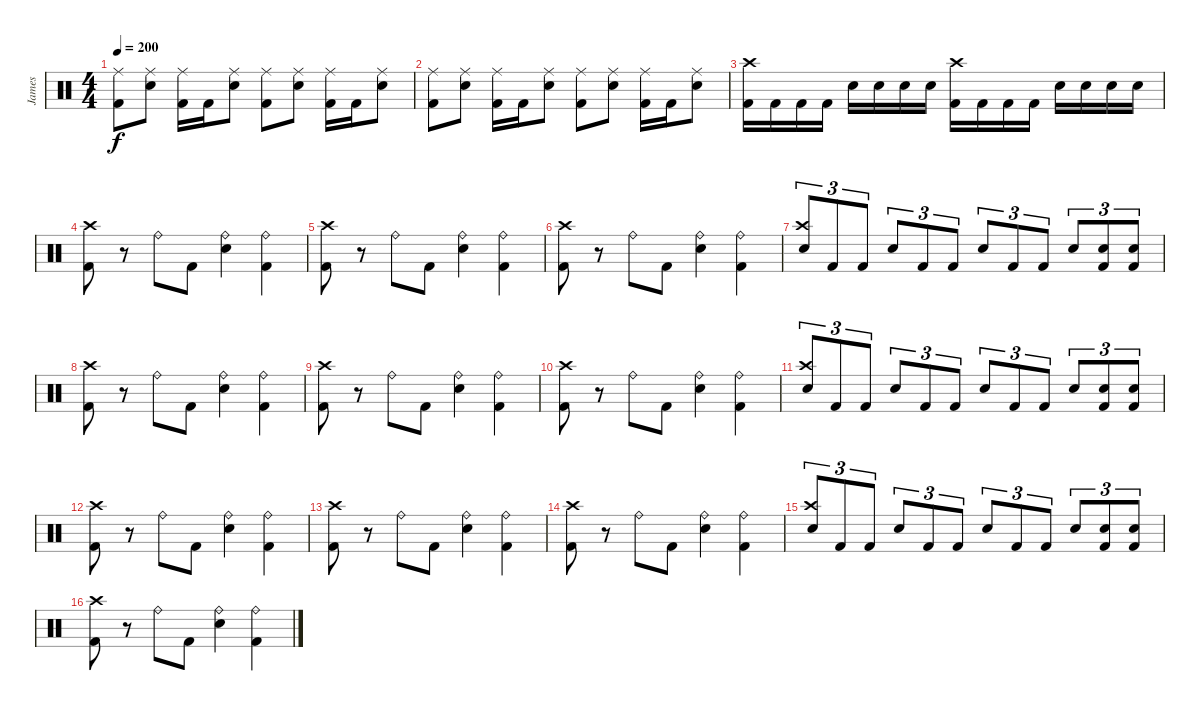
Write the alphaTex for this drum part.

\track ("James" "James") {instrument percussion}
\staff {score}
\articulation defaults
\ts (4 4)
\tempo 200
\clef neutral
\ks c
("Kick (hit) 2" "Ride (middle)").8{dy f} ("Electric Snare (hit)" "Ride (middle)").8 ("Kick (hit) 2" "Ride (middle)").16 "Kick (hit) 2".16 ("Electric Snare (hit)" "Ride (middle)").8 ("Kick (hit) 2" "Ride (middle)").8 ("Electric Snare (hit)" "Ride (middle)").8 ("Kick (hit) 2" "Ride (middle)").16 "Kick (hit) 2".16 ("Electric Snare (hit)" "Ride (middle)").8 |
("Kick (hit) 2" "Ride (middle)").8 ("Electric Snare (hit)" "Ride (middle)").8 ("Kick (hit) 2" "Ride (middle)").16 "Kick (hit) 2".16 ("Electric Snare (hit)" "Ride (middle)").8 ("Kick (hit) 2" "Ride (middle)").8 ("Electric Snare (hit)" "Ride (middle)").8 ("Kick (hit) 2" "Ride (middle)").16 "Kick (hit) 2".16 ("Electric Snare (hit)" "Ride (middle)").8 |
("Kick (hit) 2" "Crash high (hit)").16 "Kick (hit) 2".16 "Kick (hit) 2".16 "Kick (hit) 2".16 "Electric Snare (hit)".16 "Electric Snare (hit)".16 "Electric Snare (hit)".16 "Electric Snare (hit)".16 ("Kick (hit) 2" "Crash high (hit)").16 "Kick (hit) 2".16 "Kick (hit) 2".16 "Kick (hit) 2".16 "Electric Snare (hit)".16 "Electric Snare (hit)".16 "Electric Snare (hit)".16 "Electric Snare (hit)".16 |
("Crash high (hit)" "Kick (hit) 2").8 r.8 "Ride (bell)".8 "Kick (hit) 2".8 ("Ride (bell)" "Electric Snare (hit)").4 ("Ride (bell)" "Kick (hit) 2").4 |
("Crash high (hit)" "Kick (hit) 2").8 r.8 "Ride (bell)".8 "Kick (hit) 2".8 ("Ride (bell)" "Electric Snare (hit)").4 ("Ride (bell)" "Kick (hit) 2").4 |
("Crash high (hit)" "Kick (hit) 2").8 r.8 "Ride (bell)".8 "Kick (hit) 2".8 ("Ride (bell)" "Electric Snare (hit)").4 ("Ride (bell)" "Kick (hit) 2").4 |
("Electric Snare (hit)" "Crash high (hit)").8{tu (3 2) beam Up} "Kick (hit) 2".8{tu (3 2)} "Kick (hit) 2".8{tu (3 2)} "Electric Snare (hit)".8{tu (3 2) beam Up} "Kick (hit) 2".8{tu (3 2)} "Kick (hit) 2".8{tu (3 2)} "Electric Snare (hit)".8{tu (3 2) beam Up} "Kick (hit) 2".8{tu (3 2)} "Kick (hit) 2".8{tu (3 2)} "Electric Snare (hit)".8{tu (3 2) beam Up} ("Kick (hit) 2" "Electric Snare (hit)").8{tu (3 2)} ("Electric Snare (hit)" "Kick (hit) 2").8{tu (3 2)} |
("Crash high (hit)" "Kick (hit) 2").8 r.8 "Ride (bell)".8 "Kick (hit) 2".8 ("Ride (bell)" "Electric Snare (hit)").4 ("Ride (bell)" "Kick (hit) 2").4 |
("Crash high (hit)" "Kick (hit) 2").8 r.8 "Ride (bell)".8 "Kick (hit) 2".8 ("Ride (bell)" "Electric Snare (hit)").4 ("Ride (bell)" "Kick (hit) 2").4 |
("Crash high (hit)" "Kick (hit) 2").8 r.8 "Ride (bell)".8 "Kick (hit) 2".8 ("Ride (bell)" "Electric Snare (hit)").4 ("Ride (bell)" "Kick (hit) 2").4 |
("Electric Snare (hit)" "Crash high (hit)").8{tu (3 2) beam Up} "Kick (hit) 2".8{tu (3 2)} "Kick (hit) 2".8{tu (3 2)} "Electric Snare (hit)".8{tu (3 2) beam Up} "Kick (hit) 2".8{tu (3 2)} "Kick (hit) 2".8{tu (3 2)} "Electric Snare (hit)".8{tu (3 2) beam Up} "Kick (hit) 2".8{tu (3 2)} "Kick (hit) 2".8{tu (3 2)} "Electric Snare (hit)".8{tu (3 2) beam Up} ("Kick (hit) 2" "Electric Snare (hit)").8{tu (3 2)} ("Electric Snare (hit)" "Kick (hit) 2").8{tu (3 2)} |
("Crash high (hit)" "Kick (hit) 2").8 r.8 "Ride (bell)".8 "Kick (hit) 2".8 ("Ride (bell)" "Electric Snare (hit)").4 ("Ride (bell)" "Kick (hit) 2").4 |
("Crash high (hit)" "Kick (hit) 2").8 r.8 "Ride (bell)".8 "Kick (hit) 2".8 ("Ride (bell)" "Electric Snare (hit)").4 ("Ride (bell)" "Kick (hit) 2").4 |
("Crash high (hit)" "Kick (hit) 2").8 r.8 "Ride (bell)".8 "Kick (hit) 2".8 ("Ride (bell)" "Electric Snare (hit)").4 ("Ride (bell)" "Kick (hit) 2").4 |
("Electric Snare (hit)" "Crash high (hit)").8{tu (3 2) beam Up} "Kick (hit) 2".8{tu (3 2)} "Kick (hit) 2".8{tu (3 2)} "Electric Snare (hit)".8{tu (3 2) beam Up} "Kick (hit) 2".8{tu (3 2)} "Kick (hit) 2".8{tu (3 2)} "Electric Snare (hit)".8{tu (3 2) beam Up} "Kick (hit) 2".8{tu (3 2)} "Kick (hit) 2".8{tu (3 2)} "Electric Snare (hit)".8{tu (3 2) beam Up} ("Kick (hit) 2" "Electric Snare (hit)").8{tu (3 2)} ("Electric Snare (hit)" "Kick (hit) 2").8{tu (3 2)} |
("Crash high (hit)" "Kick (hit) 2").8 r.8 "Ride (bell)".8 "Kick (hit) 2".8 ("Ride (bell)" "Electric Snare (hit)").4 ("Ride (bell)" "Kick (hit) 2").4
